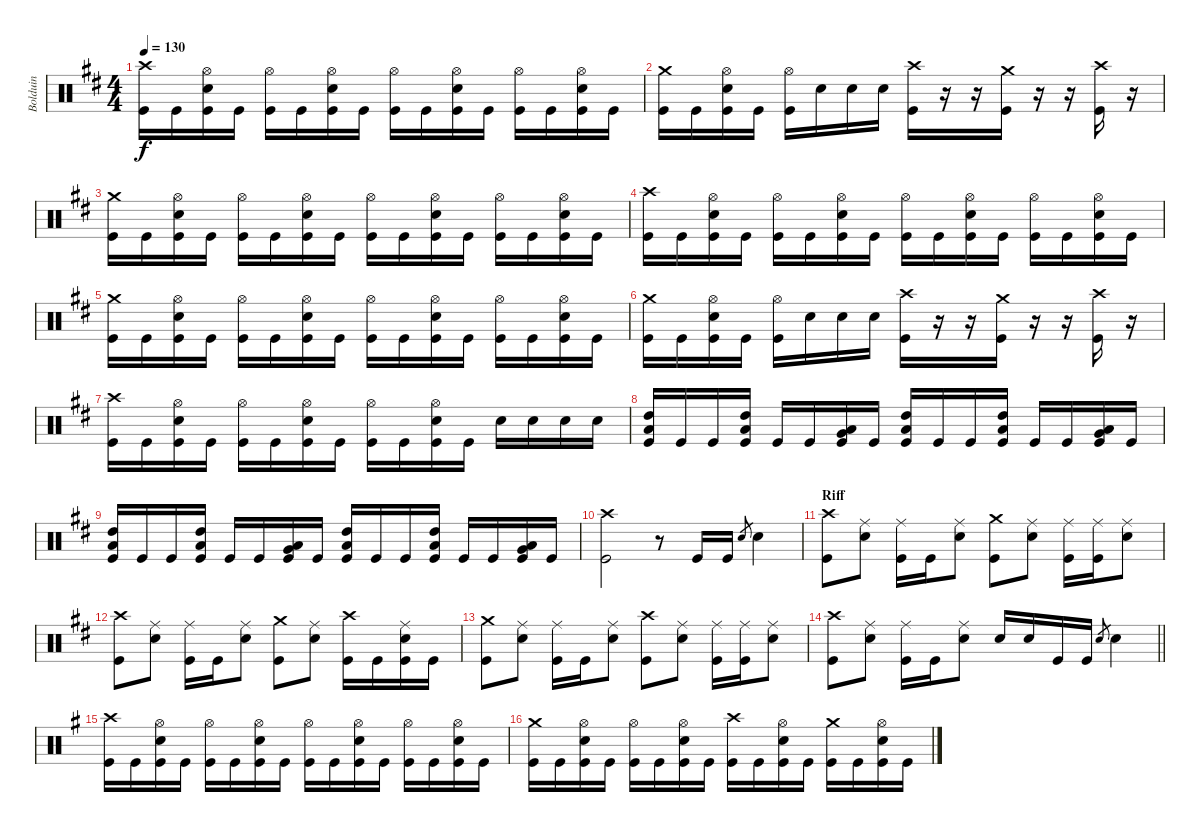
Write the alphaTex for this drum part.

\track ("Bolduin" "Bolduin") {instrument percussion}
\staff {score}
\articulation defaults
\ts (4 4)
\tempo 130
\clef neutral
\ks bminor
("Kick (hit)" "Crash high (hit)").16{dy f} "Kick (hit)".16 ("Kick (hit)" "Hi-Hat (open)" "Snare (hit) 2").16 "Kick (hit)".16 ("Kick (hit)" "Hi-Hat (open)").16 "Kick (hit)".16 ("Kick (hit)" "Hi-Hat (open)" "Snare (hit) 2").16 "Kick (hit)".16 ("Kick (hit)" "Hi-Hat (open)").16 "Kick (hit)".16 ("Kick (hit)" "Hi-Hat (open)" "Snare (hit) 2").16 "Kick (hit)".16 ("Kick (hit)" "Hi-Hat (open)").16 "Kick (hit)".16 ("Kick (hit)" "Hi-Hat (open)" "Snare (hit) 2").16 "Kick (hit)".16 |
("Crash medium (hit)" "Kick (hit)").16 "Kick (hit)".16 ("Hi-Hat (open)" "Kick (hit)" "Snare (hit) 2").16 "Kick (hit)".16 ("Hi-Hat (open)" "Kick (hit)").16 "Snare (hit) 2".16 "Snare (hit) 2".16 "Snare (hit) 2".16 ("Kick (hit)" "Crash high (hit)").16 r.16 r.16 ("Crash medium (hit)" "Kick (hit)").16 r.16 r.16 ("Kick (hit)" "Crash high (hit)").16 r.16 |
("Kick (hit)" "Crash medium (hit)").16 "Kick (hit)".16 ("Kick (hit)" "Hi-Hat (open)" "Snare (hit) 2").16 "Kick (hit)".16 ("Kick (hit)" "Hi-Hat (open)").16 "Kick (hit)".16 ("Kick (hit)" "Hi-Hat (open)" "Snare (hit) 2").16 "Kick (hit)".16 ("Kick (hit)" "Hi-Hat (open)").16 "Kick (hit)".16 ("Kick (hit)" "Hi-Hat (open)" "Snare (hit) 2").16 "Kick (hit)".16 ("Kick (hit)" "Hi-Hat (open)").16 "Kick (hit)".16 ("Kick (hit)" "Hi-Hat (open)" "Snare (hit) 2").16 "Kick (hit)".16 |
("Kick (hit)" "Crash high (hit)").16 "Kick (hit)".16 ("Kick (hit)" "Hi-Hat (open)" "Snare (hit) 2").16 "Kick (hit)".16 ("Kick (hit)" "Hi-Hat (open)").16 "Kick (hit)".16 ("Kick (hit)" "Hi-Hat (open)" "Snare (hit) 2").16 "Kick (hit)".16 ("Kick (hit)" "Hi-Hat (open)").16 "Kick (hit)".16 ("Kick (hit)" "Hi-Hat (open)" "Snare (hit) 2").16 "Kick (hit)".16 ("Kick (hit)" "Hi-Hat (open)").16 "Kick (hit)".16 ("Kick (hit)" "Hi-Hat (open)" "Snare (hit) 2").16 "Kick (hit)".16 |
("Kick (hit)" "Crash medium (hit)").16 "Kick (hit)".16 ("Kick (hit)" "Hi-Hat (open)" "Snare (hit) 2").16 "Kick (hit)".16 ("Kick (hit)" "Hi-Hat (open)").16 "Kick (hit)".16 ("Kick (hit)" "Hi-Hat (open)" "Snare (hit) 2").16 "Kick (hit)".16 ("Kick (hit)" "Hi-Hat (open)").16 "Kick (hit)".16 ("Kick (hit)" "Hi-Hat (open)" "Snare (hit) 2").16 "Kick (hit)".16 ("Kick (hit)" "Hi-Hat (open)").16 "Kick (hit)".16 ("Kick (hit)" "Hi-Hat (open)" "Snare (hit) 2").16 "Kick (hit)".16 |
("Crash medium (hit)" "Kick (hit)").16 "Kick (hit)".16 ("Hi-Hat (open)" "Kick (hit)" "Snare (hit) 2").16 "Kick (hit)".16 ("Hi-Hat (open)" "Kick (hit)").16 "Snare (hit) 2".16 "Snare (hit) 2".16 "Snare (hit) 2".16 ("Kick (hit)" "Crash high (hit)").16 r.16 r.16 ("Crash medium (hit)" "Kick (hit)").16 r.16 r.16 ("Kick (hit)" "Crash high (hit)").16 r.16 |
("Kick (hit)" "Crash high (hit)").16 "Kick (hit)".16 ("Kick (hit)" "Hi-Hat (open)" "Snare (hit) 2").16 "Kick (hit)".16 ("Kick (hit)" "Hi-Hat (open)").16 "Kick (hit)".16 ("Kick (hit)" "Hi-Hat (open)" "Snare (hit) 2").16 "Kick (hit)".16 ("Kick (hit)" "Hi-Hat (open)").16 "Kick (hit)".16 ("Kick (hit)" "Hi-Hat (open)" "Snare (hit) 2").16 "Kick (hit)".16 "Snare (hit) 2".16 "Snare (hit) 2".16 "Snare (hit) 2".16 "Snare (hit) 2".16 |
("High Tom (hit)" "Kick (hit)" "Low Tom (hit)").16 "Kick (hit)".16 "Kick (hit)".16 ("High Tom (hit)" "Kick (hit)" "Low Tom (hit)").16 "Kick (hit)".16 "Kick (hit)".16 ("Low Tom (hit)" "Kick (hit)" "Very Low Tom (hit)").16 "Kick (hit)".16 ("High Tom (hit)" "Kick (hit)" "Low Tom (hit)").16 "Kick (hit)".16 "Kick (hit)".16 ("High Tom (hit)" "Kick (hit)" "Low Tom (hit)").16 "Kick (hit)".16 "Kick (hit)".16 ("Low Tom (hit)" "Kick (hit)" "Very Low Tom (hit)").16 "Kick (hit)".16 |
("High Tom (hit)" "Kick (hit)" "Low Tom (hit)").16 "Kick (hit)".16 "Kick (hit)".16 ("High Tom (hit)" "Kick (hit)" "Low Tom (hit)").16 "Kick (hit)".16 "Kick (hit)".16 ("Low Tom (hit)" "Kick (hit)" "Very Low Tom (hit)").16 "Kick (hit)".16 ("High Tom (hit)" "Kick (hit)" "Low Tom (hit)").16 "Kick (hit)".16 "Kick (hit)".16 ("High Tom (hit)" "Kick (hit)" "Low Tom (hit)").16 "Kick (hit)".16 "Kick (hit)".16 ("Low Tom (hit)" "Kick (hit)" "Very Low Tom (hit)").16 "Kick (hit)".16 |
("Kick (hit)" "Crash high (hit)").2 r.8 "Kick (hit)".16 "Kick (hit)".16 "Snare (hit) 2".8{gr} "Snare (hit) 2".4 |
\section ("" "Riff")
("Crash high (hit)" "Kick (hit)").8 ("Ride (middle)" "Snare (hit) 2").8 ("Ride (middle)" "Kick (hit)").16 "Kick (hit)".16 ("Ride (middle)" "Snare (hit) 2").8 ("Crash medium (hit)" "Kick (hit)").8 ("Ride (middle)" "Snare (hit) 2").8 ("Ride (middle)" "Kick (hit)").16 ("Ride (middle)" "Kick (hit)").16 ("Ride (middle)" "Snare (hit) 2").8 |
("Crash high (hit)" "Kick (hit)").8 ("Ride (middle)" "Snare (hit) 2").8 ("Ride (middle)" "Kick (hit)").16 "Kick (hit)".16 ("Ride (middle)" "Snare (hit) 2").8 ("Crash medium (hit)" "Kick (hit)").8 ("Ride (middle)" "Snare (hit) 2").8 ("Crash high (hit)" "Kick (hit)").16 "Kick (hit)".16 ("Ride (middle)" "Snare (hit) 2" "Kick (hit)").16 "Kick (hit)".16 |
("Crash medium (hit)" "Kick (hit)").8 ("Ride (middle)" "Snare (hit) 2").8 ("Ride (middle)" "Kick (hit)").16 "Kick (hit)".16 ("Ride (middle)" "Snare (hit) 2").8 ("Crash high (hit)" "Kick (hit)").8 ("Ride (middle)" "Snare (hit) 2").8 ("Ride (middle)" "Kick (hit)").16 ("Ride (middle)" "Kick (hit)").16 ("Ride (middle)" "Snare (hit) 2").8 |
\barLineRight lightlight
("Crash high (hit)" "Kick (hit)").8 ("Ride (middle)" "Snare (hit) 2").8 ("Ride (middle)" "Kick (hit)").16 "Kick (hit)".16 ("Ride (middle)" "Snare (hit) 2").8 "Snare (hit) 2".16 "Snare (hit) 2".16 "Kick (hit)".16 "Kick (hit)".16 "Snare (hit) 2".8{gr} "Snare (hit) 2".4 |
\ks eminor
("Kick (hit)" "Crash high (hit)").16 "Kick (hit)".16 ("Kick (hit)" "Hi-Hat (open)" "Snare (hit) 2").16 "Kick (hit)".16 ("Kick (hit)" "Hi-Hat (open)").16 "Kick (hit)".16 ("Kick (hit)" "Hi-Hat (open)" "Snare (hit) 2").16 "Kick (hit)".16 ("Kick (hit)" "Hi-Hat (open)").16 "Kick (hit)".16 ("Kick (hit)" "Hi-Hat (open)" "Snare (hit) 2").16 "Kick (hit)".16 ("Kick (hit)" "Hi-Hat (open)").16 "Kick (hit)".16 ("Kick (hit)" "Hi-Hat (open)" "Snare (hit) 2").16 "Kick (hit)".16 |
("Kick (hit)" "Crash medium (hit)").16 "Kick (hit)".16 ("Kick (hit)" "Hi-Hat (open)" "Snare (hit) 2").16 "Kick (hit)".16 ("Kick (hit)" "Hi-Hat (open)").16 "Kick (hit)".16 ("Kick (hit)" "Hi-Hat (open)" "Snare (hit) 2").16 "Kick (hit)".16 ("Kick (hit)" "Crash high (hit)").16 "Kick (hit)".16 ("Kick (hit)" "Hi-Hat (open)" "Snare (hit) 2").16 "Kick (hit)".16 ("Kick (hit)" "Crash medium (hit)").16 "Kick (hit)".16 ("Kick (hit)" "Hi-Hat (open)" "Snare (hit) 2").16 "Kick (hit)".16
